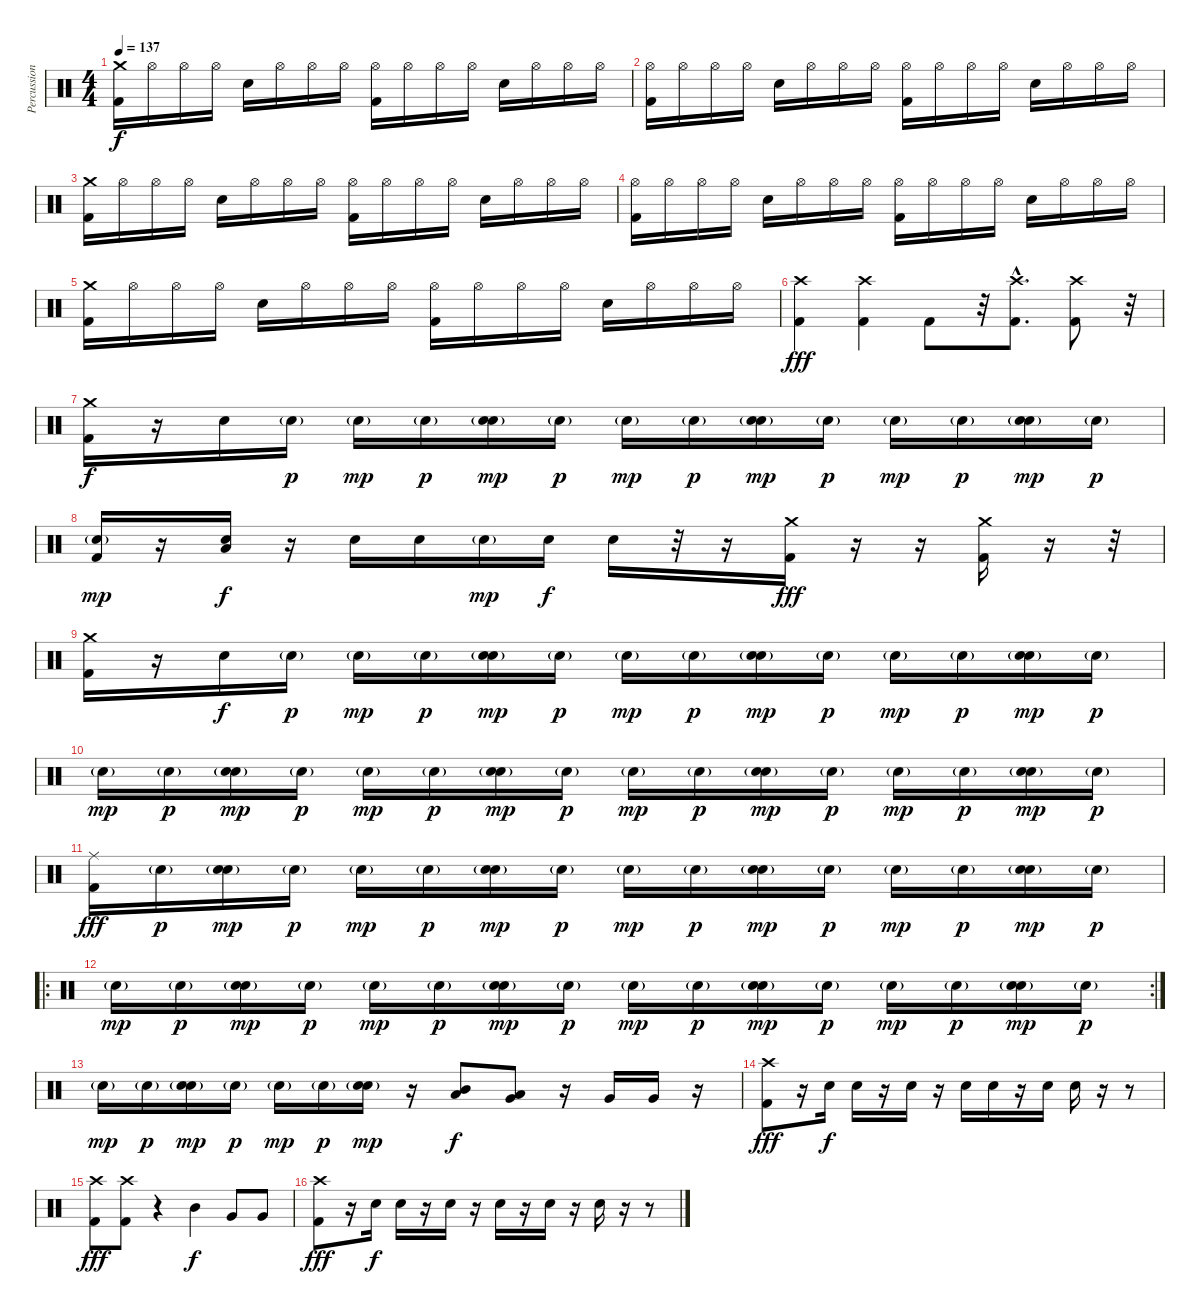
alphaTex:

\track ("Percussion" "Percussion") {instrument percussion}
\staff {score}
\articulation defaults
\ts (4 4)
\tempo 137
\clef neutral
\ks c
("Crash medium (hit)" "Kick (hit) 2").16{dy f} "Hi-Hat (open)".16 "Hi-Hat (open)".16 "Hi-Hat (open)".16 "Electric Snare (hit)".16 "Hi-Hat (open)".16 "Hi-Hat (open)".16 "Hi-Hat (open)".16 ("Hi-Hat (open)" "Kick (hit) 2").16 "Hi-Hat (open)".16 "Hi-Hat (open)".16 "Hi-Hat (open)".16 "Electric Snare (hit)".16 "Hi-Hat (open)".16 "Hi-Hat (open)".16 "Hi-Hat (open)".16 |
("Hi-Hat (open)" "Kick (hit) 2").16 "Hi-Hat (open)".16 "Hi-Hat (open)".16 "Hi-Hat (open)".16 "Electric Snare (hit)".16 "Hi-Hat (open)".16 "Hi-Hat (open)".16 "Hi-Hat (open)".16 ("Hi-Hat (open)" "Kick (hit) 2").16 "Hi-Hat (open)".16 "Hi-Hat (open)".16 "Hi-Hat (open)".16 "Electric Snare (hit)".16 "Hi-Hat (open)".16 "Hi-Hat (open)".16 "Hi-Hat (open)".16 |
("Crash medium (hit)" "Kick (hit) 2").16 "Hi-Hat (open)".16 "Hi-Hat (open)".16 "Hi-Hat (open)".16 "Electric Snare (hit)".16 "Hi-Hat (open)".16 "Hi-Hat (open)".16 "Hi-Hat (open)".16 ("Hi-Hat (open)" "Kick (hit) 2").16 "Hi-Hat (open)".16 "Hi-Hat (open)".16 "Hi-Hat (open)".16 "Electric Snare (hit)".16 "Hi-Hat (open)".16 "Hi-Hat (open)".16 "Hi-Hat (open)".16 |
("Hi-Hat (open)" "Kick (hit) 2").16 "Hi-Hat (open)".16 "Hi-Hat (open)".16 "Hi-Hat (open)".16 "Electric Snare (hit)".16 "Hi-Hat (open)".16 "Hi-Hat (open)".16 "Hi-Hat (open)".16 ("Hi-Hat (open)" "Kick (hit) 2").16 "Hi-Hat (open)".16 "Hi-Hat (open)".16 "Hi-Hat (open)".16 "Electric Snare (hit)".16 "Hi-Hat (open)".16 "Hi-Hat (open)".16 "Hi-Hat (open)".16 |
("Crash medium (hit)" "Kick (hit) 2").16 "Hi-Hat (open)".16 "Hi-Hat (open)".16 "Hi-Hat (open)".16 "Electric Snare (hit)".16 "Hi-Hat (open)".16 "Hi-Hat (open)".16 "Hi-Hat (open)".16 ("Hi-Hat (open)" "Kick (hit) 2").16 "Hi-Hat (open)".16 "Hi-Hat (open)".16 "Hi-Hat (open)".16 "Electric Snare (hit)".16 "Hi-Hat (open)".16 "Hi-Hat (open)".16 "Hi-Hat (open)".16 |
("Crash high (hit)" "Kick (hit) 2").4{dy fff} ("Crash high (hit)" "Kick (hit) 2").4 "Kick (hit) 2".8 r.32 ("Crash high (hit)"{hac} "Kick (hit) 2"{hac}).8{d} ("Crash high (hit)" "Kick (hit) 2").8 r.32 |
("Crash medium (hit)" "Kick (hit) 2").16{dy f} r.16 "Electric Snare (hit)".16 "Electric Snare (hit)"{g}.16{dy p} "Electric Snare (hit)"{g}.16{dy mp} "Electric Snare (hit)"{g}.16{dy p} ("Electric Snare (hit)"{g} "Electric Snare (hit)").16{dy mp} "Electric Snare (hit)"{g}.16{dy p} "Electric Snare (hit)"{g}.16{dy mp} "Electric Snare (hit)"{g}.16{dy p} ("Electric Snare (hit)"{g} "Electric Snare (hit)").16{dy mp} "Electric Snare (hit)"{g}.16{dy p} "Electric Snare (hit)"{g}.16{dy mp} "Electric Snare (hit)"{g}.16{dy p} ("Electric Snare (hit)"{g} "Electric Snare (hit)").16{dy mp} "Electric Snare (hit)"{g}.16{dy p} |
("Electric Snare (hit)"{g} "Kick (hit) 2").16{dy mp} r.16 ("Low Tom (hit)" "Electric Snare (hit)").16{dy f} r.16 "Electric Snare (hit)".16 "Electric Snare (hit)".16 "Electric Snare (hit)"{g}.16{dy mp} "Electric Snare (hit)".16{dy f} "Electric Snare (hit)".16 r.32 r.16 ("Crash medium (hit)" "Kick (hit) 2").16{dy fff} r.16 r.16 ("Crash medium (hit)" "Kick (hit) 2").16 r.16 r.32 |
("Crash medium (hit)" "Kick (hit) 2").16 r.16 "Electric Snare (hit)".16{dy f} "Electric Snare (hit)"{g}.16{dy p} "Electric Snare (hit)"{g}.16{dy mp} "Electric Snare (hit)"{g}.16{dy p} ("Electric Snare (hit)"{g} "Electric Snare (hit)").16{dy mp} "Electric Snare (hit)"{g}.16{dy p} "Electric Snare (hit)"{g}.16{dy mp} "Electric Snare (hit)"{g}.16{dy p} ("Electric Snare (hit)"{g} "Electric Snare (hit)").16{dy mp} "Electric Snare (hit)"{g}.16{dy p} "Electric Snare (hit)"{g}.16{dy mp} "Electric Snare (hit)"{g}.16{dy p} ("Electric Snare (hit)"{g} "Electric Snare (hit)").16{dy mp} "Electric Snare (hit)"{g}.16{dy p} |
"Electric Snare (hit)"{g}.16{dy mp} "Electric Snare (hit)"{g}.16{dy p} ("Electric Snare (hit)"{g} "Electric Snare (hit)").16{dy mp} "Electric Snare (hit)"{g}.16{dy p} "Electric Snare (hit)"{g}.16{dy mp} "Electric Snare (hit)"{g}.16{dy p} ("Electric Snare (hit)"{g} "Electric Snare (hit)").16{dy mp} "Electric Snare (hit)"{g}.16{dy p} "Electric Snare (hit)"{g}.16{dy mp} "Electric Snare (hit)"{g}.16{dy p} ("Electric Snare (hit)"{g} "Electric Snare (hit)").16{dy mp} "Electric Snare (hit)"{g}.16{dy p} "Electric Snare (hit)"{g}.16{dy mp} "Electric Snare (hit)"{g}.16{dy p} ("Electric Snare (hit)"{g} "Electric Snare (hit)").16{dy mp} "Electric Snare (hit)"{g}.16{dy p} |
("Ride (middle)" "Kick (hit) 2").16{dy fff} "Electric Snare (hit)"{g}.16{dy p} ("Electric Snare (hit)"{g} "Electric Snare (hit)").16{dy mp} "Electric Snare (hit)"{g}.16{dy p} "Electric Snare (hit)"{g}.16{dy mp} "Electric Snare (hit)"{g}.16{dy p} ("Electric Snare (hit)"{g} "Electric Snare (hit)").16{dy mp} "Electric Snare (hit)"{g}.16{dy p} "Electric Snare (hit)"{g}.16{dy mp} "Electric Snare (hit)"{g}.16{dy p} ("Electric Snare (hit)"{g} "Electric Snare (hit)").16{dy mp} "Electric Snare (hit)"{g}.16{dy p} "Electric Snare (hit)"{g}.16{dy mp} "Electric Snare (hit)"{g}.16{dy p} ("Electric Snare (hit)"{g} "Electric Snare (hit)").16{dy mp} "Electric Snare (hit)"{g}.16{dy p} |
\ro
\rc 2 "Electric Snare (hit)"{g}.16{dy mp} "Electric Snare (hit)"{g}.16{dy p}
("Electric Snare (hit)"{g} "Electric Snare (hit)").16{dy mp} "Electric Snare (hit)"{g}.16{dy p} "Electric Snare (hit)"{g}.16{dy mp} "Electric Snare (hit)"{g}.16{dy p} ("Electric Snare (hit)"{g} "Electric Snare (hit)").16{dy mp} "Electric Snare (hit)"{g}.16{dy p} "Electric Snare (hit)"{g}.16{dy mp} "Electric Snare (hit)"{g}.16{dy p} ("Electric Snare (hit)"{g} "Electric Snare (hit)").16{dy mp} "Electric Snare (hit)"{g}.16{dy p} "Electric Snare (hit)"{g}.16{dy mp} "Electric Snare (hit)"{g}.16{dy p} ("Electric Snare (hit)"{g} "Electric Snare (hit)").16{dy mp} "Electric Snare (hit)"{g}.16{dy p} |
"Electric Snare (hit)"{g}.16{dy mp} "Electric Snare (hit)"{g}.16{dy p} ("Electric Snare (hit)"{g} "Electric Snare (hit)").16{dy mp} "Electric Snare (hit)"{g}.16{dy p} "Electric Snare (hit)"{g}.16{dy mp} "Electric Snare (hit)"{g}.16{dy p} ("Electric Snare (hit)"{g} "Electric Snare (hit)").16{dy mp} r.16 ("Mid Tom (hit)" "Low Tom (hit)").8{bu 120 dy f} ("Low Tom (hit)" "Very Low Tom (hit)").8{bu 120} r.16 "Very Low Tom (hit)".16 "Very Low Tom (hit)".16 r.16 |
("Crash high (hit)" "Kick (hit) 2").8{dy fff} r.16 "Electric Snare (hit)".16{dy f} "Electric Snare (hit)".16 r.16 "Electric Snare (hit)".16 r.16 "Electric Snare (hit)".16 "Electric Snare (hit)".16 r.16 "Electric Snare (hit)".16 "Electric Snare (hit)".16 r.16 r.8 |
("Crash high (hit)" "Kick (hit) 2").8{dy fff} ("Crash high (hit)" "Kick (hit) 2").8 r.4 "Mid Tom (hit)".4{dy f} "Very Low Tom (hit)".8 "Very Low Tom (hit)".8 |
("Crash high (hit)" "Kick (hit) 2").8{dy fff} r.16 "Electric Snare (hit)".16{dy f} "Electric Snare (hit)".16 r.16 "Electric Snare (hit)".16 r.16 "Electric Snare (hit)".16 r.16 "Electric Snare (hit)".16 r.16 "Electric Snare (hit)".16 r.16 r.8
